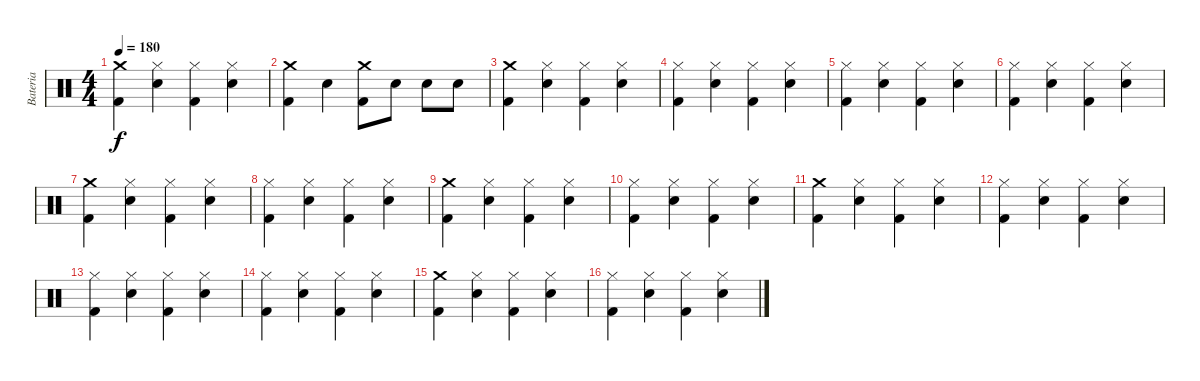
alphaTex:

\track ("Bateria" "Bateria") {instrument percussion}
\staff {score}
\articulation defaults
\ts (4 4)
\tempo 180
\clef neutral
\ks c
("Crash medium (hit)" "Kick (hit) 2").4{dy f} ("Hi-Hat (closed)" "Electric Snare (hit)").4 ("Hi-Hat (closed)" "Kick (hit) 2").4 ("Hi-Hat (closed)" "Electric Snare (hit)").4 |
("Crash medium (hit)" "Kick (hit) 2").4 "Electric Snare (hit)".4 ("Crash medium (hit)" "Kick (hit) 2").8 "Electric Snare (hit)".8 "Electric Snare (hit)".8 "Electric Snare (hit)".8 |
("Crash medium (hit)" "Kick (hit) 2").4 ("Hi-Hat (closed)" "Electric Snare (hit)").4 ("Hi-Hat (closed)" "Kick (hit) 2").4 ("Hi-Hat (closed)" "Electric Snare (hit)").4 |
("Hi-Hat (closed)" "Kick (hit) 2").4 ("Hi-Hat (closed)" "Electric Snare (hit)").4 ("Hi-Hat (closed)" "Kick (hit) 2").4 ("Hi-Hat (closed)" "Electric Snare (hit)").4 |
("Hi-Hat (closed)" "Kick (hit) 2").4 ("Hi-Hat (closed)" "Electric Snare (hit)").4 ("Hi-Hat (closed)" "Kick (hit) 2").4 ("Hi-Hat (closed)" "Electric Snare (hit)").4 |
("Hi-Hat (closed)" "Kick (hit) 2").4 ("Hi-Hat (closed)" "Electric Snare (hit)").4 ("Hi-Hat (closed)" "Kick (hit) 2").4 ("Hi-Hat (closed)" "Electric Snare (hit)").4 |
("Crash medium (hit)" "Kick (hit) 2").4 ("Hi-Hat (closed)" "Electric Snare (hit)").4 ("Hi-Hat (closed)" "Kick (hit) 2").4 ("Hi-Hat (closed)" "Electric Snare (hit)").4 |
("Hi-Hat (closed)" "Kick (hit) 2").4 ("Hi-Hat (closed)" "Electric Snare (hit)").4 ("Hi-Hat (closed)" "Kick (hit) 2").4 ("Hi-Hat (closed)" "Electric Snare (hit)").4 |
("Crash medium (hit)" "Kick (hit) 2").4 ("Hi-Hat (closed)" "Electric Snare (hit)").4 ("Hi-Hat (closed)" "Kick (hit) 2").4 ("Hi-Hat (closed)" "Electric Snare (hit)").4 |
("Hi-Hat (closed)" "Kick (hit) 2").4 ("Hi-Hat (closed)" "Electric Snare (hit)").4 ("Hi-Hat (closed)" "Kick (hit) 2").4 ("Hi-Hat (closed)" "Electric Snare (hit)").4 |
("Crash medium (hit)" "Kick (hit) 2").4 ("Hi-Hat (closed)" "Electric Snare (hit)").4 ("Hi-Hat (closed)" "Kick (hit) 2").4 ("Hi-Hat (closed)" "Electric Snare (hit)").4 |
("Hi-Hat (closed)" "Kick (hit) 2").4 ("Hi-Hat (closed)" "Electric Snare (hit)").4 ("Hi-Hat (closed)" "Kick (hit) 2").4 ("Hi-Hat (closed)" "Electric Snare (hit)").4 |
("Hi-Hat (closed)" "Kick (hit) 2").4 ("Hi-Hat (closed)" "Electric Snare (hit)").4 ("Hi-Hat (closed)" "Kick (hit) 2").4 ("Hi-Hat (closed)" "Electric Snare (hit)").4 |
("Hi-Hat (closed)" "Kick (hit) 2").4 ("Hi-Hat (closed)" "Electric Snare (hit)").4 ("Hi-Hat (closed)" "Kick (hit) 2").4 ("Hi-Hat (closed)" "Electric Snare (hit)").4 |
("Crash medium (hit)" "Kick (hit) 2").4 ("Hi-Hat (closed)" "Electric Snare (hit)").4 ("Hi-Hat (closed)" "Kick (hit) 2").4 ("Hi-Hat (closed)" "Electric Snare (hit)").4 |
("Hi-Hat (closed)" "Kick (hit) 2").4 ("Hi-Hat (closed)" "Electric Snare (hit)").4 ("Hi-Hat (closed)" "Kick (hit) 2").4 ("Hi-Hat (closed)" "Electric Snare (hit)").4
